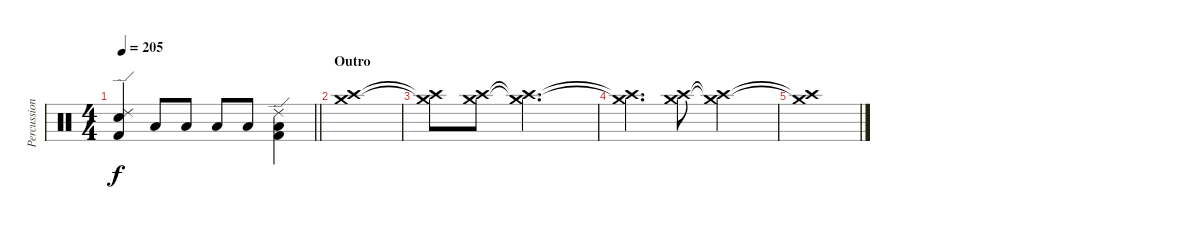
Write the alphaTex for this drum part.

\track ("Percussion" "Percussion") {instrument percussion}
\staff {score}
\articulation defaults
\ts (4 4)
\tempo 205
\clef neutral
\barLineRight lightlight
\ks c
("Ride (edge) 2" "Electric Snare (hit)" "Kick (hit) 2").4{dy f} "Low Floor Tom (hit)".8 "Low Floor Tom (hit)".8 "Low Tom (hit)".8 "Low Tom (hit)".8 ("Ride (edge) 2" "Low Tom (hit)" "Kick (hit) 2").4 |
\section ("" "Outro")
("Crash high (hit)" "Crash medium (hit)").1 |
("Crash high (hit)"{t} "Crash medium (hit)"{t}).8 ("Crash high (hit)" "Crash medium (hit)").8 ("Crash high (hit)"{t} "Crash medium (hit)"{t}).2{d} |
("Crash high (hit)"{t} "Crash medium (hit)"{t}).4{d} ("Crash high (hit)" "Crash medium (hit)").8 ("Crash high (hit)"{t} "Crash medium (hit)"{t}).2 |
("Crash high (hit)"{t} "Crash medium (hit)"{t}).1
